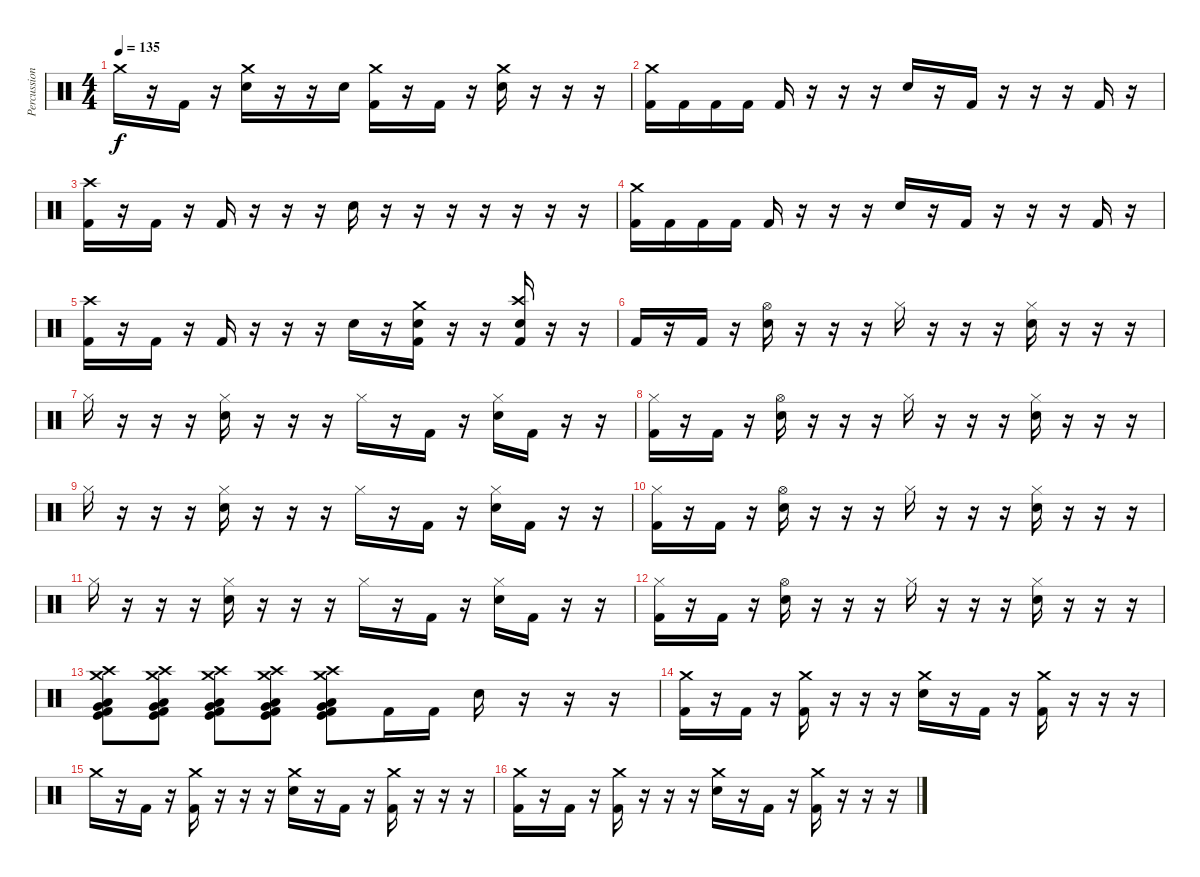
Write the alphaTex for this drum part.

\track ("Percussion" "Percussion") {instrument percussion}
\staff {score}
\articulation defaults
\ts (4 4)
\tempo 135
\clef neutral
\ks c "Crash medium (hit)".16{dy f}
r.16 "Kick (hit) 2".16 r.16 ("Crash medium (hit)" "Electric Snare (hit)").16 r.16 r.16 "Electric Snare (hit)".16 ("Crash medium (hit)" "Kick (hit) 2").16 r.16 "Kick (hit) 2".16 r.16 ("Crash medium (hit)" "Electric Snare (hit)").16 r.16 r.16 r.16 |
("Crash medium (hit)" "Kick (hit) 2").16 "Kick (hit) 2".16 "Kick (hit) 2".16 "Kick (hit) 2".16 "Kick (hit) 2".16 r.16 r.16 r.16 "Electric Snare (hit)".16 r.16 "Kick (hit) 2".16 r.16 r.16 r.16 "Kick (hit) 2".16 r.16 |
("Crash high (hit)" "Kick (hit) 2").16 r.16 "Kick (hit) 2".16 r.16 "Kick (hit) 2".16 r.16 r.16 r.16 "Electric Snare (hit)".16 r.16 r.16 r.16 r.16 r.16 r.16 r.16 |
("Crash medium (hit)" "Kick (hit) 2").16 "Kick (hit) 2".16 "Kick (hit) 2".16 "Kick (hit) 2".16 "Kick (hit) 2".16 r.16 r.16 r.16 "Electric Snare (hit)".16 r.16 "Kick (hit) 2".16 r.16 r.16 r.16 "Kick (hit) 2".16 r.16 |
("Crash high (hit)" "Kick (hit) 2").16 r.16 "Kick (hit) 2".16 r.16 "Kick (hit) 2".16 r.16 r.16 r.16 "Electric Snare (hit)".16 r.16 ("Snare (hit) 2" "Crash medium (hit)" "Kick (hit) 2").16 r.16 r.16 ("Snare (hit) 2" "Crash high (hit)" "Kick (hit) 2").16 r.16 r.16 |
"Kick (hit) 2".16{volume 15} r.16 "Kick (hit) 2".16 r.16 ("Hi-Hat (open)" "Electric Snare (hit)").16 r.16 r.16 r.16 "Hi-Hat (closed)".16 r.16 r.16 r.16 ("Hi-Hat (closed)" "Electric Snare (hit)").16 r.16 r.16 r.16 |
"Hi-Hat (closed)".16 r.16 r.16 r.16 ("Hi-Hat (closed)" "Electric Snare (hit)").16 r.16 r.16 r.16 "Hi-Hat (closed)".16 r.16 "Kick (hit) 2".16 r.16 ("Hi-Hat (closed)" "Electric Snare (hit)").16 "Kick (hit) 2".16 r.16 r.16 |
("Hi-Hat (closed)" "Kick (hit) 2").16 r.16 "Kick (hit) 2".16 r.16 ("Hi-Hat (open)" "Electric Snare (hit)").16 r.16 r.16 r.16 "Hi-Hat (closed)".16 r.16 r.16 r.16 ("Hi-Hat (closed)" "Electric Snare (hit)").16 r.16 r.16 r.16 |
"Hi-Hat (closed)".16 r.16 r.16 r.16 ("Hi-Hat (closed)" "Electric Snare (hit)").16 r.16 r.16 r.16 "Hi-Hat (closed)".16 r.16 "Kick (hit) 2".16 r.16 ("Hi-Hat (closed)" "Electric Snare (hit)").16 "Kick (hit) 2".16 r.16 r.16 |
("Hi-Hat (closed)" "Kick (hit) 2").16 r.16 "Kick (hit) 2".16 r.16 ("Hi-Hat (open)" "Electric Snare (hit)").16 r.16 r.16 r.16 "Hi-Hat (closed)".16 r.16 r.16 r.16 ("Hi-Hat (closed)" "Electric Snare (hit)").16 r.16 r.16 r.16 |
"Hi-Hat (closed)".16 r.16 r.16 r.16 ("Hi-Hat (closed)" "Electric Snare (hit)").16 r.16 r.16 r.16 "Hi-Hat (closed)".16 r.16 "Kick (hit) 2".16 r.16 ("Hi-Hat (closed)" "Electric Snare (hit)").16 "Kick (hit) 2".16 r.16 r.16 |
("Hi-Hat (closed)" "Kick (hit) 2").16 r.16 "Kick (hit) 2".16 r.16 ("Hi-Hat (open)" "Electric Snare (hit)").16 r.16 r.16 r.16 "Hi-Hat (closed)".16 r.16 r.16 r.16 ("Hi-Hat (closed)" "Electric Snare (hit)").16 r.16 r.16 r.16 |
("Crash high (hit)" "Crash medium (hit)" "Low Tom (hit)" "Very Low Tom (hit)" "Kick (hit) 2" "Kick (hit)").8 ("Crash high (hit)" "Crash medium (hit)" "Low Tom (hit)" "Very Low Tom (hit)" "Kick (hit) 2" "Kick (hit)").8 ("Crash high (hit)" "Crash medium (hit)" "Low Tom (hit)" "Very Low Tom (hit)" "Kick (hit) 2" "Kick (hit)").8 ("Crash high (hit)" "Crash medium (hit)" "Low Tom (hit)" "Very Low Tom (hit)" "Kick (hit) 2" "Kick (hit)").8 ("Crash high (hit)" "Crash medium (hit)" "Low Tom (hit)" "Very Low Tom (hit)" "Kick (hit) 2" "Kick (hit)").8 "Kick (hit) 2".16 "Kick (hit) 2".16 "Electric Snare (hit)".16 r.16 r.16 r.16 |
("Crash medium (hit)" "Kick (hit) 2").16 r.16 "Kick (hit) 2".16 r.16 ("Crash medium (hit)" "Kick (hit) 2").16 r.16 r.16 r.16 ("Crash medium (hit)" "Electric Snare (hit)").16 r.16 "Kick (hit) 2".16 r.16 ("Crash medium (hit)" "Kick (hit) 2").16 r.16 r.16 r.16 |
"Crash medium (hit)".16 r.16 "Kick (hit) 2".16 r.16 ("Crash medium (hit)" "Kick (hit) 2").16 r.16 r.16 r.16 ("Crash medium (hit)" "Electric Snare (hit)").16 r.16 "Kick (hit) 2".16 r.16 ("Crash medium (hit)" "Kick (hit) 2").16 r.16 r.16 r.16 |
("Crash medium (hit)" "Kick (hit) 2").16 r.16 "Kick (hit) 2".16 r.16 ("Crash medium (hit)" "Kick (hit) 2").16 r.16 r.16 r.16 ("Crash medium (hit)" "Electric Snare (hit)").16 r.16 "Kick (hit) 2".16 r.16 ("Crash medium (hit)" "Kick (hit) 2").16 r.16 r.16 r.16
